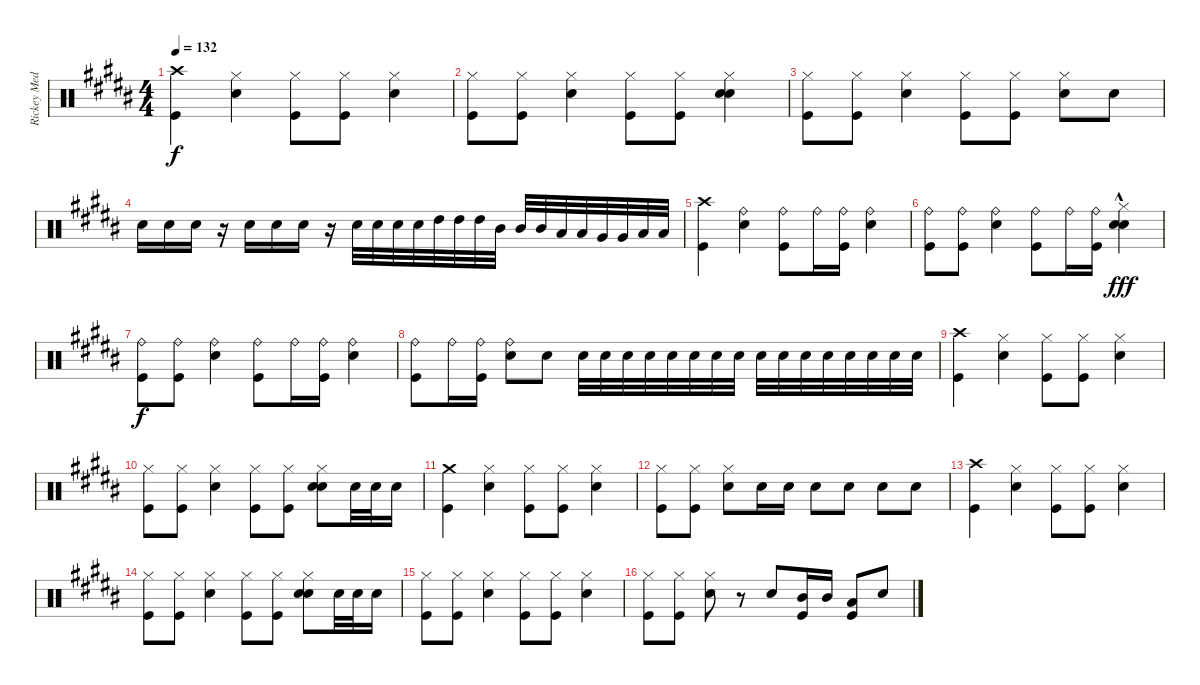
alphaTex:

\track ("Rickey Medlocke Drums" "Rickey Med") {instrument percussion}
\staff {score}
\articulation defaults
\ts (4 4)
\tempo 132
\clef neutral
\ks b
("Crash high (hit)" "Kick (hit)").4{dy f} ("Hi-Hat (closed)" "Snare (hit) 2").4 ("Hi-Hat (closed)" "Kick (hit)").8 ("Hi-Hat (closed)" "Kick (hit)").8 ("Hi-Hat (closed)" "Snare (hit) 2").4 |
("Hi-Hat (closed)" "Kick (hit)").8 ("Hi-Hat (closed)" "Kick (hit)").8 ("Hi-Hat (closed)" "Snare (hit) 2").4 ("Hi-Hat (closed)" "Kick (hit)").8 ("Hi-Hat (closed)" "Kick (hit)").8 ("Hi-Hat (closed)" "Snare (hit) 2" "Hand Clap (hit)").4 |
("Hi-Hat (closed)" "Kick (hit)").8 ("Hi-Hat (closed)" "Kick (hit)").8 ("Hi-Hat (closed)" "Snare (hit) 2").4 ("Hi-Hat (closed)" "Kick (hit)").8 ("Hi-Hat (closed)" "Kick (hit)").8 ("Hi-Hat (closed)" "Snare (hit) 2").8 "Snare (hit) 2".8 |
"Snare (hit) 2".16 "Snare (hit) 2".16 "Snare (hit) 2".16 r.16 "Snare (hit) 2".16 "Snare (hit) 2".16 "Snare (hit) 2".16 r.16 "Snare (hit) 2".32 "Snare (hit) 2".32 "Snare (hit) 2".32 "Snare (hit) 2".32 "High Tom (hit)".32 "High Tom (hit)".32 "High Tom (hit)".32 "Mid Tom (hit)".32 "Mid Tom (hit)".32 "Mid Tom (hit)".32 "Low Tom (hit)".32 "Low Tom (hit)".32 "Very Low Tom (hit)".32 "Very Low Tom (hit)".32 "Low Floor Tom (hit)".32 "Low Floor Tom (hit)".32 |
("Crash high (hit)" "Kick (hit)").4 ("Ride (bell)" "Snare (hit) 2").4 ("Ride (bell)" "Kick (hit)").8 "Ride (bell)".16 ("Ride (bell)" "Kick (hit)").16 ("Ride (bell)" "Snare (hit) 2").4 |
("Ride (bell)" "Kick (hit)").8 ("Ride (bell)" "Kick (hit)").8 ("Ride (bell)" "Snare (hit) 2").4 ("Ride (bell)" "Kick (hit)").8 "Ride (bell)".16 ("Ride (bell)" "Kick (hit)").16 ("Hi-Hat (closed)" "Snare (hit) 2" "Hand Clap (hit)"{hac}).4{dy fff} |
("Ride (bell)" "Kick (hit)").8{dy f} ("Ride (bell)" "Kick (hit)").8 ("Ride (bell)" "Snare (hit) 2").4 ("Ride (bell)" "Kick (hit)").8 "Ride (bell)".16 ("Ride (bell)" "Kick (hit)").16 ("Ride (bell)" "Snare (hit) 2").4 |
("Ride (bell)" "Kick (hit)").8 "Ride (bell)".16 ("Ride (bell)" "Kick (hit)").16 ("Ride (bell)" "Snare (hit) 2").8 "Snare (hit) 2".8 "Snare (hit) 2".32 "Snare (hit) 2".32 "Snare (hit) 2".32 "Snare (hit) 2".32 "Snare (hit) 2".32 "Snare (hit) 2".32 "Snare (hit) 2".32 "Snare (hit) 2".32 "Snare (hit) 2".32 "Snare (hit) 2".32 "Snare (hit) 2".32 "Snare (hit) 2".32 "Snare (hit) 2".32 "Snare (hit) 2".32 "Snare (hit) 2".32 "Snare (hit) 2".32 |
("Crash high (hit)" "Kick (hit)").4 ("Hi-Hat (closed)" "Snare (hit) 2").4 ("Hi-Hat (closed)" "Kick (hit)").8 ("Hi-Hat (closed)" "Kick (hit)").8 ("Hi-Hat (closed)" "Snare (hit) 2").4 |
("Hi-Hat (closed)" "Kick (hit)").8 ("Hi-Hat (closed)" "Kick (hit)").8 ("Hi-Hat (closed)" "Snare (hit) 2").4 ("Hi-Hat (closed)" "Kick (hit)").8 ("Hi-Hat (closed)" "Kick (hit)").8 ("Hi-Hat (closed)" "Snare (hit) 2" "Hand Clap (hit)").8 "Snare (hit) 2".32 "Snare (hit) 2".32 "Snare (hit) 2".16 |
("Crash medium (hit)" "Kick (hit)").4 ("Hi-Hat (closed)" "Snare (hit) 2").4 ("Hi-Hat (closed)" "Kick (hit)").8 ("Hi-Hat (closed)" "Kick (hit)").8 ("Hi-Hat (closed)" "Snare (hit) 2").4 |
("Hi-Hat (closed)" "Kick (hit)").8 ("Hi-Hat (closed)" "Kick (hit)").8 ("Hi-Hat (closed)" "Snare (hit) 2").8 "Snare (hit) 2".16 "Snare (hit) 2".16 "Snare (hit) 2".8 "Snare (hit) 2".8 "Snare (hit) 2".8 "Snare (hit) 2".8 |
("Crash high (hit)" "Kick (hit)").4 ("Hi-Hat (closed)" "Snare (hit) 2").4 ("Hi-Hat (closed)" "Kick (hit)").8 ("Hi-Hat (closed)" "Kick (hit)").8 ("Hi-Hat (closed)" "Snare (hit) 2").4 |
("Hi-Hat (closed)" "Kick (hit)").8 ("Hi-Hat (closed)" "Kick (hit)").8 ("Hi-Hat (closed)" "Snare (hit) 2").4 ("Hi-Hat (closed)" "Kick (hit)").8 ("Hi-Hat (closed)" "Kick (hit)").8 ("Hi-Hat (closed)" "Snare (hit) 2" "Hand Clap (hit)").8 "Snare (hit) 2".32 "Snare (hit) 2".32 "Snare (hit) 2".16 |
("Hi-Hat (closed)" "Kick (hit)").8 ("Hi-Hat (closed)" "Kick (hit)").8 ("Hi-Hat (closed)" "Snare (hit) 2").4 ("Hi-Hat (closed)" "Kick (hit)").8 ("Hi-Hat (closed)" "Kick (hit)").8 ("Hi-Hat (closed)" "Snare (hit) 2").4 |
("Hi-Hat (closed)" "Kick (hit)").8 ("Hi-Hat (closed)" "Kick (hit)").8 ("Hi-Hat (closed)" "Snare (hit) 2").8 r.8 "Snare (hit) 2".8 ("Mid Tom (hit)" "Kick (hit)").16 "Mid Tom (hit)".16 ("Low Tom (hit)" "Kick (hit)").8 "Snare (hit) 2".8
